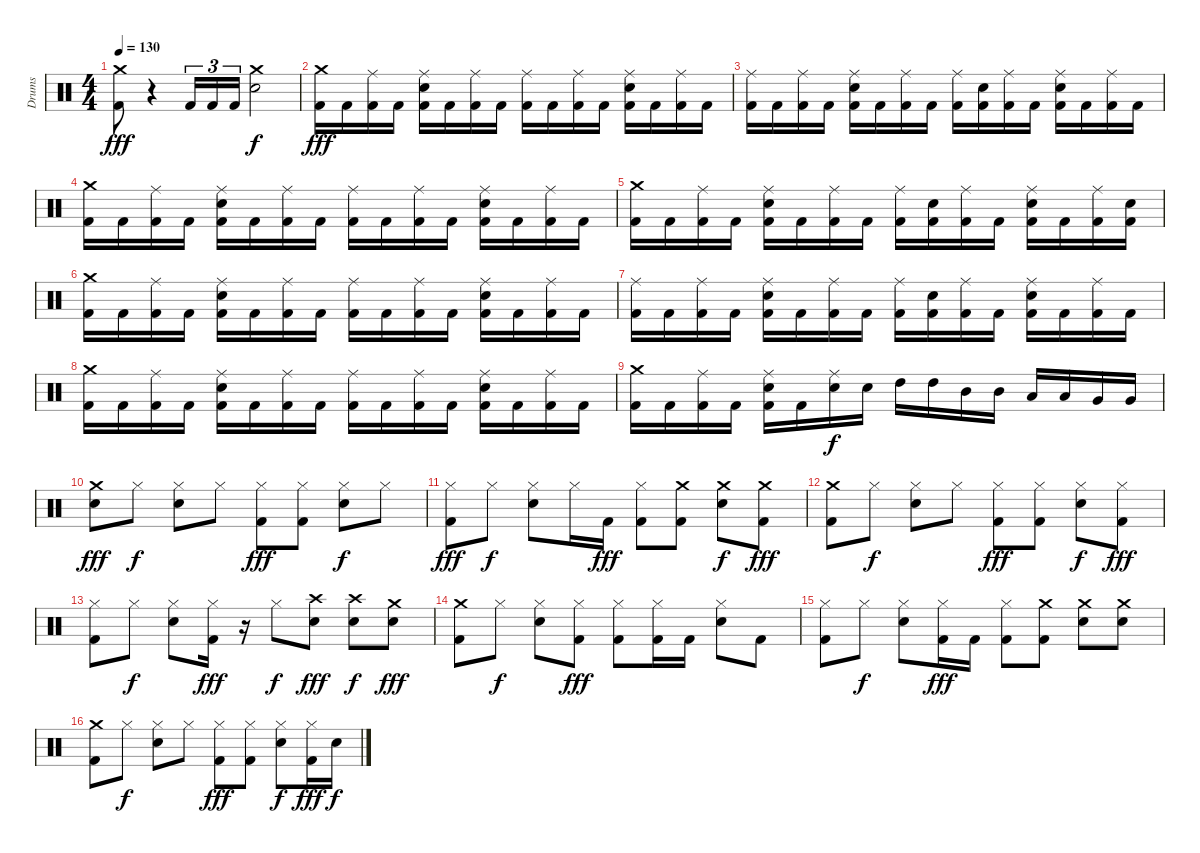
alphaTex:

\track ("Drums" "Drums") {instrument percussion}
\staff {score}
\articulation defaults
\ts (4 4)
\tempo 130
\clef neutral
\ks c
("Crash medium (hit)" "Kick (hit) 2").8{dy fff} r.4 "Kick (hit) 2".16{tu (3 2)} "Kick (hit) 2".16{tu (3 2)} "Kick (hit) 2".16{tu (3 2)} ("Crash medium (hit)" "Electric Snare (hit)").2{dy f} |
("Crash medium (hit)" "Kick (hit) 2").16{dy fff} "Kick (hit) 2".16 ("Ride (middle)" "Kick (hit) 2").16 "Kick (hit) 2".16 ("Ride (middle)" "Electric Snare (hit)" "Kick (hit) 2").16 "Kick (hit) 2".16 ("Ride (middle)" "Kick (hit) 2").16 "Kick (hit) 2".16 ("Ride (middle)" "Kick (hit) 2").16 "Kick (hit) 2".16 ("Ride (middle)" "Kick (hit) 2").16 "Kick (hit) 2".16 ("Ride (middle)" "Electric Snare (hit)" "Kick (hit) 2").16 "Kick (hit) 2".16 ("Ride (middle)" "Kick (hit) 2").16 "Kick (hit) 2".16 |
("Ride (middle)" "Kick (hit) 2").16 "Kick (hit) 2".16 ("Ride (middle)" "Kick (hit) 2").16 "Kick (hit) 2".16 ("Ride (middle)" "Electric Snare (hit)" "Kick (hit) 2").16 "Kick (hit) 2".16 ("Ride (middle)" "Kick (hit) 2").16 "Kick (hit) 2".16 ("Ride (middle)" "Kick (hit) 2").16 ("Electric Snare (hit)" "Kick (hit) 2").16 ("Ride (middle)" "Kick (hit) 2").16 "Kick (hit) 2".16 ("Ride (middle)" "Electric Snare (hit)" "Kick (hit) 2").16 "Kick (hit) 2".16 ("Ride (middle)" "Kick (hit) 2").16 "Kick (hit) 2".16 |
("Crash medium (hit)" "Kick (hit) 2").16 "Kick (hit) 2".16 ("Ride (middle)" "Kick (hit) 2").16 "Kick (hit) 2".16 ("Ride (middle)" "Electric Snare (hit)" "Kick (hit) 2").16 "Kick (hit) 2".16 ("Ride (middle)" "Kick (hit) 2").16 "Kick (hit) 2".16 ("Ride (middle)" "Kick (hit) 2").16 "Kick (hit) 2".16 ("Ride (middle)" "Kick (hit) 2").16 "Kick (hit) 2".16 ("Ride (middle)" "Electric Snare (hit)" "Kick (hit) 2").16 "Kick (hit) 2".16 ("Ride (middle)" "Kick (hit) 2").16 "Kick (hit) 2".16 |
("Crash medium (hit)" "Kick (hit) 2").16 "Kick (hit) 2".16 ("Ride (middle)" "Kick (hit) 2").16 "Kick (hit) 2".16 ("Ride (middle)" "Electric Snare (hit)" "Kick (hit) 2").16 "Kick (hit) 2".16 ("Ride (middle)" "Kick (hit) 2").16 "Kick (hit) 2".16 ("Ride (middle)" "Kick (hit) 2").16 ("Electric Snare (hit)" "Kick (hit) 2").16 ("Ride (middle)" "Kick (hit) 2").16 "Kick (hit) 2".16 ("Ride (middle)" "Electric Snare (hit)" "Kick (hit) 2").16 "Kick (hit) 2".16 ("Ride (middle)" "Kick (hit) 2").16 ("Electric Snare (hit)" "Kick (hit) 2").16 |
("Crash medium (hit)" "Kick (hit) 2").16 "Kick (hit) 2".16 ("Ride (middle)" "Kick (hit) 2").16 "Kick (hit) 2".16 ("Ride (middle)" "Electric Snare (hit)" "Kick (hit) 2").16 "Kick (hit) 2".16 ("Ride (middle)" "Kick (hit) 2").16 "Kick (hit) 2".16 ("Ride (middle)" "Kick (hit) 2").16 "Kick (hit) 2".16 ("Ride (middle)" "Kick (hit) 2").16 "Kick (hit) 2".16 ("Ride (middle)" "Electric Snare (hit)" "Kick (hit) 2").16 "Kick (hit) 2".16 ("Ride (middle)" "Kick (hit) 2").16 "Kick (hit) 2".16 |
("Ride (middle)" "Kick (hit) 2").16 "Kick (hit) 2".16 ("Ride (middle)" "Kick (hit) 2").16 "Kick (hit) 2".16 ("Ride (middle)" "Electric Snare (hit)" "Kick (hit) 2").16 "Kick (hit) 2".16 ("Ride (middle)" "Kick (hit) 2").16 "Kick (hit) 2".16 ("Ride (middle)" "Kick (hit) 2").16 ("Electric Snare (hit)" "Kick (hit) 2").16 ("Ride (middle)" "Kick (hit) 2").16 "Kick (hit) 2".16 ("Ride (middle)" "Electric Snare (hit)" "Kick (hit) 2").16 "Kick (hit) 2".16 ("Ride (middle)" "Kick (hit) 2").16 "Kick (hit) 2".16 |
("Crash medium (hit)" "Kick (hit) 2").16 "Kick (hit) 2".16 ("Ride (middle)" "Kick (hit) 2").16 "Kick (hit) 2".16 ("Ride (middle)" "Electric Snare (hit)" "Kick (hit) 2").16 "Kick (hit) 2".16 ("Ride (middle)" "Kick (hit) 2").16 "Kick (hit) 2".16 ("Ride (middle)" "Kick (hit) 2").16 "Kick (hit) 2".16 ("Ride (middle)" "Kick (hit) 2").16 "Kick (hit) 2".16 ("Ride (middle)" "Electric Snare (hit)" "Kick (hit) 2").16 "Kick (hit) 2".16 ("Ride (middle)" "Kick (hit) 2").16 "Kick (hit) 2".16 |
("Crash medium (hit)" "Kick (hit) 2").16 "Kick (hit) 2".16 ("Ride (middle)" "Kick (hit) 2").16 "Kick (hit) 2".16 ("Ride (middle)" "Electric Snare (hit)" "Kick (hit) 2").16 "Kick (hit) 2".16 ("Ride (middle)" "Electric Snare (hit)").16{dy f} "Electric Snare (hit)".16 "High Tom (hit)".16 "High Tom (hit)".16 "Mid Tom (hit)".16 "Mid Tom (hit)".16 "Low Tom (hit)".16 "Low Tom (hit)".16 "Very Low Tom (hit)".16 "Very Low Tom (hit)".16 |
("Crash medium (hit)" "Electric Snare (hit)").8{dy fff} "Hi-Hat (closed)".8{dy f} ("Hi-Hat (closed)" "Electric Snare (hit)").8 "Hi-Hat (closed)".8 ("Hi-Hat (closed)" "Kick (hit) 2").8{dy fff} ("Hi-Hat (closed)" "Kick (hit) 2").8 ("Hi-Hat (closed)" "Electric Snare (hit)").8{dy f} "Hi-Hat (closed)".8 |
("Hi-Hat (closed)" "Kick (hit) 2").8{dy fff} "Hi-Hat (closed)".8{dy f} ("Hi-Hat (closed)" "Electric Snare (hit)").8 "Hi-Hat (closed)".16 "Kick (hit) 2".16{dy fff} ("Hi-Hat (closed)" "Kick (hit) 2").8 ("Crash medium (hit)" "Kick (hit) 2").8 ("Crash medium (hit)" "Electric Snare (hit)").8{dy f} ("Crash medium (hit)" "Kick (hit) 2").8{dy fff} |
("Crash medium (hit)" "Kick (hit) 2").8 "Hi-Hat (closed)".8{dy f} ("Hi-Hat (closed)" "Electric Snare (hit)").8 "Hi-Hat (closed)".8 ("Hi-Hat (closed)" "Kick (hit) 2").8{dy fff} ("Hi-Hat (closed)" "Kick (hit) 2").8 ("Hi-Hat (closed)" "Electric Snare (hit)").8{dy f} ("Hi-Hat (closed)" "Kick (hit) 2").8{dy fff} |
("Hi-Hat (closed)" "Kick (hit) 2").8 "Hi-Hat (closed)".8{dy f} ("Hi-Hat (closed)" "Electric Snare (hit)").8 ("Hi-Hat (closed)" "Kick (hit) 2").16{dy fff} r.16 "Hi-Hat (closed)".8{dy f} ("Crash high (hit)" "Electric Snare (hit)").8{dy fff} ("Crash high (hit)" "Electric Snare (hit)").8{dy f} ("Crash medium (hit)" "Electric Snare (hit)").8{dy fff} |
("Crash medium (hit)" "Kick (hit) 2").8 "Hi-Hat (closed)".8{dy f} ("Hi-Hat (closed)" "Electric Snare (hit)").8 ("Hi-Hat (closed)" "Kick (hit) 2").8{dy fff} ("Hi-Hat (closed)" "Kick (hit) 2").8 ("Hi-Hat (closed)" "Kick (hit) 2").16 "Kick (hit) 2".16 ("Hi-Hat (closed)" "Electric Snare (hit)").8 "Kick (hit) 2".8 |
("Hi-Hat (closed)" "Kick (hit) 2").8 "Hi-Hat (closed)".8{dy f} ("Hi-Hat (closed)" "Electric Snare (hit)").8 ("Hi-Hat (closed)" "Kick (hit) 2").16{dy fff} "Kick (hit) 2".16 ("Hi-Hat (closed)" "Kick (hit) 2").8 ("Crash medium (hit)" "Kick (hit) 2").8 ("Crash medium (hit)" "Electric Snare (hit)").8 ("Crash medium (hit)" "Electric Snare (hit)").8 |
("Crash medium (hit)" "Kick (hit) 2").8 "Hi-Hat (closed)".8{dy f} ("Hi-Hat (closed)" "Electric Snare (hit)").8 "Hi-Hat (closed)".8 ("Hi-Hat (closed)" "Kick (hit) 2").8{dy fff} ("Hi-Hat (closed)" "Kick (hit) 2").8 ("Hi-Hat (closed)" "Electric Snare (hit)").8{dy f} ("Hi-Hat (closed)" "Kick (hit) 2").16{dy fff} "Electric Snare (hit)".16{dy f}
